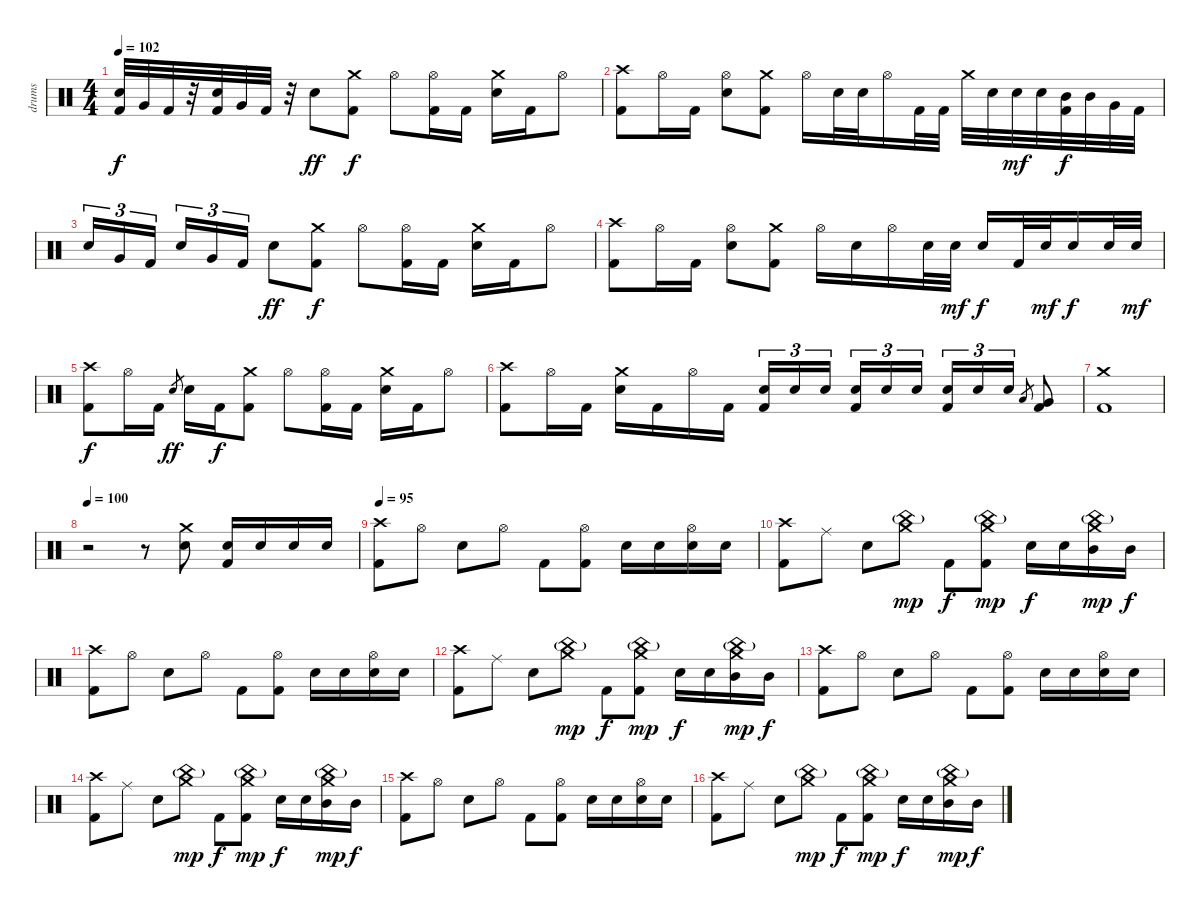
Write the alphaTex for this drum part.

\track ("drums" "drums") {instrument percussion}
\staff {score}
\articulation defaults
\ts (4 4)
\tempo 102
\clef neutral
\ks c
("Electric Snare (hit)" "Kick (hit) 2").32{dy f} "Very Low Tom (hit)".32 "Kick (hit) 2".32 r.32 ("Electric Snare (hit)" "Kick (hit) 2").32 "Very Low Tom (hit)".32 "Kick (hit) 2".32 r.32 "Electric Snare (hit)".8{dy ff} ("Crash medium (hit)" "Kick (hit) 2").8{dy f} "Hi-Hat (open)".8 ("Hi-Hat (open)" "Kick (hit) 2").16 "Kick (hit) 2".16 ("Crash medium (hit)" "Electric Snare (hit)").16 "Kick (hit) 2".16 "Hi-Hat (open)".8 |
("Crash high (hit)" "Kick (hit) 2").8 "Hi-Hat (open)".16 "Kick (hit) 2".16 ("Hi-Hat (open)" "Electric Snare (hit)").8 ("Crash medium (hit)" "Kick (hit) 2").8 "Hi-Hat (open)".16 "Electric Snare (hit)".32 "Electric Snare (hit)".32 "Hi-Hat (open)".16 "Kick (hit) 2".32 "Kick (hit) 2".32 "Crash medium (hit)".32 "Electric Snare (hit)".32 "Electric Snare (hit)".32{dy mf} "Electric Snare (hit)".32 ("Mid Tom (hit)" "Kick (hit) 2").32{dy f} "Mid Tom (hit)".32 "Very Low Tom (hit)".32 "Kick (hit) 2".32 |
"Electric Snare (hit)".16{tu (3 2)} "Very Low Tom (hit)".16{tu (3 2)} "Kick (hit) 2".16{tu (3 2)} "Electric Snare (hit)".16{tu (3 2)} "Very Low Tom (hit)".16{tu (3 2)} "Kick (hit) 2".16{tu (3 2)} "Electric Snare (hit)".8{dy ff} ("Crash medium (hit)" "Kick (hit) 2").8{dy f} "Hi-Hat (open)".8 ("Hi-Hat (open)" "Kick (hit) 2").16 "Kick (hit) 2".16 ("Crash medium (hit)" "Electric Snare (hit)").16 "Kick (hit) 2".16 "Hi-Hat (open)".8 |
("Crash high (hit)" "Kick (hit) 2").8 "Hi-Hat (open)".16 "Kick (hit) 2".16 ("Hi-Hat (open)" "Electric Snare (hit)").8 ("Crash medium (hit)" "Kick (hit) 2").8 "Hi-Hat (open)".16 "Electric Snare (hit)".16 "Hi-Hat (open)".16 "Electric Snare (hit)".32 "Electric Snare (hit)".32{dy mf} "Electric Snare (hit)".16{dy f} "Kick (hit) 2".32 "Electric Snare (hit)".32{dy mf} "Electric Snare (hit)".16{dy f} "Electric Snare (hit)".32 "Electric Snare (hit)".32{dy mf} |
("Crash high (hit)" "Kick (hit) 2").8{dy f} "Hi-Hat (open)".16 "Kick (hit) 2".16 "Electric Snare (hit)".8{gr dy ff} "Electric Snare (hit)".16 "Kick (hit) 2".16{dy f} ("Crash medium (hit)" "Kick (hit) 2").8 "Hi-Hat (open)".8 ("Hi-Hat (open)" "Kick (hit) 2").16 "Kick (hit) 2".16 ("Crash medium (hit)" "Electric Snare (hit)").16 "Kick (hit) 2".16 "Hi-Hat (open)".8 |
("Crash high (hit)" "Kick (hit) 2").8 "Hi-Hat (open)".16 "Kick (hit) 2".16 ("Crash medium (hit)" "Electric Snare (hit)").16 "Kick (hit) 2".16 "Hi-Hat (open)".16 "Kick (hit) 2".16 ("Electric Snare (hit)" "Kick (hit) 2").16{tu (3 2)} "Electric Snare (hit)".16{tu (3 2)} "Electric Snare (hit)".16{tu (3 2)} ("Electric Snare (hit)" "Kick (hit) 2").16{tu (3 2)} "Electric Snare (hit)".16{tu (3 2)} "Electric Snare (hit)".16{tu (3 2)} ("Electric Snare (hit)" "Kick (hit) 2").16{tu (3 2)} "Electric Snare (hit)".16{tu (3 2)} "Electric Snare (hit)".16{tu (3 2)} "Low Tom (hit)".8{gr} ("Very Low Tom (hit)" "Kick (hit) 2").8 |
("Crash medium (hit)" "Kick (hit) 2").1 |
\tempo 100
r.2 r.8 ("Crash medium (hit)" "Electric Snare (hit)").8 ("Electric Snare (hit)" "Kick (hit) 2").16 "Electric Snare (hit)".16 "Electric Snare (hit)".16 "Electric Snare (hit)".16 |
\tempo 95
("Crash high (hit)" "Kick (hit) 2").8 "Hi-Hat (open)".8 "Electric Snare (hit)".8 "Hi-Hat (open)".8 "Kick (hit) 2".8 ("Hi-Hat (open)" "Kick (hit) 2").8 "Electric Snare (hit)".16 "Electric Snare (hit)".16 ("Hi-Hat (open)" "Electric Snare (hit)").16 "Electric Snare (hit)".16 |
("Crash high (hit)" "Kick (hit) 2").8 "Ride (middle)".8 "Electric Snare (hit)".8 ("Crash medium (hit)" "China (hit)"{g}).8{dy mp} "Kick (hit) 2".8{dy f} ("Crash medium (hit)" "China (hit)"{g} "Kick (hit) 2").8{dy mp} "Electric Snare (hit)".16{dy f} "Electric Snare (hit)".16 ("Crash medium (hit)" "China (hit)"{g} "Mid Tom (hit)").16{dy mp} "Mid Tom (hit)".16{dy f} |
("Crash high (hit)" "Kick (hit) 2").8{volume 9} "Hi-Hat (open)".8 "Electric Snare (hit)".8 "Hi-Hat (open)".8 "Kick (hit) 2".8 ("Hi-Hat (open)" "Kick (hit) 2").8 "Electric Snare (hit)".16 "Electric Snare (hit)".16 ("Hi-Hat (open)" "Electric Snare (hit)").16 "Electric Snare (hit)".16 |
("Crash high (hit)" "Kick (hit) 2").8 "Ride (middle)".8 "Electric Snare (hit)".8 ("Crash medium (hit)" "China (hit)"{g}).8{dy mp} "Kick (hit) 2".8{dy f} ("Crash medium (hit)" "China (hit)"{g} "Kick (hit) 2").8{dy mp} "Electric Snare (hit)".16{dy f} "Electric Snare (hit)".16 ("Crash medium (hit)" "China (hit)"{g} "Mid Tom (hit)").16{dy mp} "Mid Tom (hit)".16{dy f} |
("Crash high (hit)" "Kick (hit) 2").8{volume 0} "Hi-Hat (open)".8 "Electric Snare (hit)".8 "Hi-Hat (open)".8 "Kick (hit) 2".8 ("Hi-Hat (open)" "Kick (hit) 2").8 "Electric Snare (hit)".16 "Electric Snare (hit)".16 ("Hi-Hat (open)" "Electric Snare (hit)").16 "Electric Snare (hit)".16 |
("Crash high (hit)" "Kick (hit) 2").8 "Ride (middle)".8 "Electric Snare (hit)".8 ("Crash medium (hit)" "China (hit)"{g}).8{dy mp} "Kick (hit) 2".8{dy f} ("Crash medium (hit)" "China (hit)"{g} "Kick (hit) 2").8{dy mp} "Electric Snare (hit)".16{dy f} "Electric Snare (hit)".16 ("Crash medium (hit)" "China (hit)"{g} "Mid Tom (hit)").16{dy mp} "Mid Tom (hit)".16{dy f} |
("Crash high (hit)" "Kick (hit) 2").8 "Hi-Hat (open)".8 "Electric Snare (hit)".8 "Hi-Hat (open)".8 "Kick (hit) 2".8 ("Hi-Hat (open)" "Kick (hit) 2").8 "Electric Snare (hit)".16 "Electric Snare (hit)".16 ("Hi-Hat (open)" "Electric Snare (hit)").16 "Electric Snare (hit)".16 |
("Crash high (hit)" "Kick (hit) 2").8 "Ride (middle)".8 "Electric Snare (hit)".8 ("Crash medium (hit)" "China (hit)"{g}).8{dy mp} "Kick (hit) 2".8{dy f} ("Crash medium (hit)" "China (hit)"{g} "Kick (hit) 2").8{dy mp} "Electric Snare (hit)".16{dy f} "Electric Snare (hit)".16 ("Crash medium (hit)" "China (hit)"{g} "Mid Tom (hit)").16{dy mp} "Mid Tom (hit)".16{dy f}
